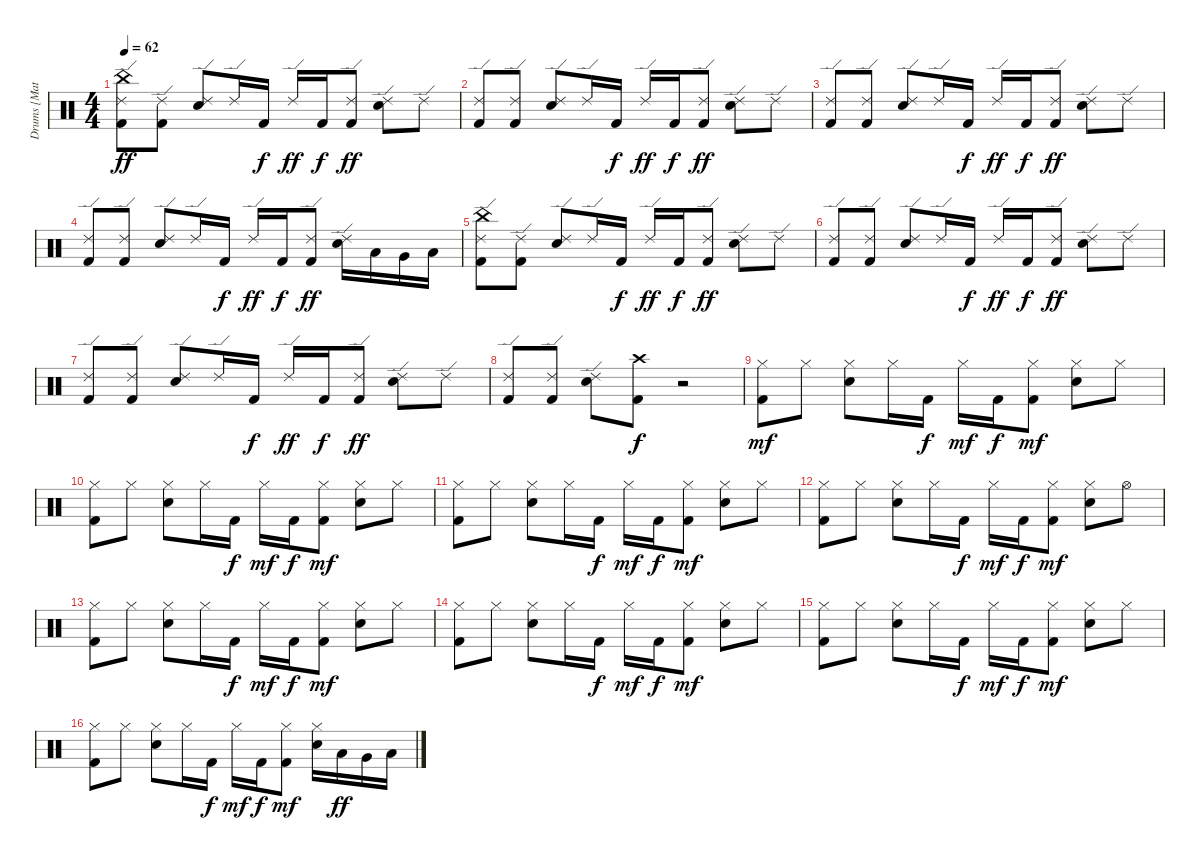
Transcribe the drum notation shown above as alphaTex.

\track ("Drums [Matt]" "Drums [Mat") {instrument percussion}
\staff {score}
\articulation defaults
\ts (4 4)
\tempo 62
\clef neutral
\ks c
("China (hit)" "Ride (edge) 2" "Kick (hit) 2").8{dy ff} ("Ride (edge) 2" "Kick (hit) 2").8 ("Ride (edge) 2" "Snare (hit) 2").8 "Ride (edge) 2".16 "Kick (hit) 2".16{dy f} "Ride (edge) 2".16{dy ff} "Kick (hit) 2".16{dy f} ("Ride (edge) 2" "Kick (hit) 2").8{dy ff} ("Ride (edge) 2" "Snare (hit) 2").8 "Ride (edge) 2".8 |
("Ride (edge) 2" "Kick (hit) 2").8 ("Ride (edge) 2" "Kick (hit) 2").8 ("Ride (edge) 2" "Snare (hit) 2").8 "Ride (edge) 2".16 "Kick (hit) 2".16{dy f} "Ride (edge) 2".16{dy ff} "Kick (hit) 2".16{dy f} ("Ride (edge) 2" "Kick (hit) 2").8{dy ff} ("Ride (edge) 2" "Snare (hit) 2").8 "Ride (edge) 2".8 |
("Ride (edge) 2" "Kick (hit) 2").8 ("Ride (edge) 2" "Kick (hit) 2").8 ("Ride (edge) 2" "Snare (hit) 2").8 "Ride (edge) 2".16 "Kick (hit) 2".16{dy f} "Ride (edge) 2".16{dy ff} "Kick (hit) 2".16{dy f} ("Ride (edge) 2" "Kick (hit) 2").8{dy ff} ("Ride (edge) 2" "Snare (hit) 2").8 "Ride (edge) 2".8 |
("Ride (edge) 2" "Kick (hit) 2").8 ("Ride (edge) 2" "Kick (hit) 2").8 ("Ride (edge) 2" "Snare (hit) 2").8 "Ride (edge) 2".16 "Kick (hit) 2".16{dy f} "Ride (edge) 2".16{dy ff} "Kick (hit) 2".16{dy f} ("Ride (edge) 2" "Kick (hit) 2").8{dy ff} ("Ride (edge) 2" "Snare (hit) 2").16 "Low Tom (hit)".16 "Very Low Tom (hit)".16 "Low Floor Tom (hit)".16 |
("China (hit)" "Ride (edge) 2" "Kick (hit) 2").8 ("Ride (edge) 2" "Kick (hit) 2").8 ("Ride (edge) 2" "Snare (hit) 2").8 "Ride (edge) 2".16 "Kick (hit) 2".16{dy f} "Ride (edge) 2".16{dy ff} "Kick (hit) 2".16{dy f} ("Ride (edge) 2" "Kick (hit) 2").8{dy ff} ("Ride (edge) 2" "Snare (hit) 2").8 "Ride (edge) 2".8 |
("Ride (edge) 2" "Kick (hit) 2").8 ("Ride (edge) 2" "Kick (hit) 2").8 ("Ride (edge) 2" "Snare (hit) 2").8 "Ride (edge) 2".16 "Kick (hit) 2".16{dy f} "Ride (edge) 2".16{dy ff} "Kick (hit) 2".16{dy f} ("Ride (edge) 2" "Kick (hit) 2").8{dy ff} ("Ride (edge) 2" "Snare (hit) 2").8 "Ride (edge) 2".8 |
("Ride (edge) 2" "Kick (hit) 2").8 ("Ride (edge) 2" "Kick (hit) 2").8 ("Ride (edge) 2" "Snare (hit) 2").8 "Ride (edge) 2".16 "Kick (hit) 2".16{dy f} "Ride (edge) 2".16{dy ff} "Kick (hit) 2".16{dy f} ("Ride (edge) 2" "Kick (hit) 2").8{dy ff} ("Ride (edge) 2" "Snare (hit) 2").8 "Ride (edge) 2".8 |
("Ride (edge) 2" "Kick (hit) 2").8 ("Ride (edge) 2" "Kick (hit) 2").8 ("Ride (edge) 2" "Snare (hit) 2").8 ("Crash high (hit)" "Kick (hit) 2").8{dy f} r.2 |
("Hi-Hat (closed)" "Kick (hit) 2").8{dy mf} "Hi-Hat (closed)".8 ("Hi-Hat (closed)" "Snare (hit) 2").8 "Hi-Hat (closed)".16 "Kick (hit) 2".16{dy f} "Hi-Hat (closed)".16{dy mf} "Kick (hit) 2".16{dy f} ("Hi-Hat (closed)" "Kick (hit) 2").8{dy mf} ("Hi-Hat (closed)" "Snare (hit) 2").8 "Hi-Hat (closed)".8 |
("Hi-Hat (closed)" "Kick (hit) 2").8 "Hi-Hat (closed)".8 ("Hi-Hat (closed)" "Snare (hit) 2").8 "Hi-Hat (closed)".16 "Kick (hit) 2".16{dy f} "Hi-Hat (closed)".16{dy mf} "Kick (hit) 2".16{dy f} ("Hi-Hat (closed)" "Kick (hit) 2").8{dy mf} ("Hi-Hat (closed)" "Snare (hit) 2").8 "Hi-Hat (closed)".8 |
("Hi-Hat (closed)" "Kick (hit) 2").8 "Hi-Hat (closed)".8 ("Hi-Hat (closed)" "Snare (hit) 2").8 "Hi-Hat (closed)".16 "Kick (hit) 2".16{dy f} "Hi-Hat (closed)".16{dy mf} "Kick (hit) 2".16{dy f} ("Hi-Hat (closed)" "Kick (hit) 2").8{dy mf} ("Hi-Hat (closed)" "Snare (hit) 2").8 "Hi-Hat (closed)".8 |
("Hi-Hat (closed)" "Kick (hit) 2").8 "Hi-Hat (closed)".8 ("Hi-Hat (closed)" "Snare (hit) 2").8 "Hi-Hat (closed)".16 "Kick (hit) 2".16{dy f} "Hi-Hat (closed)".16{dy mf} "Kick (hit) 2".16{dy f} ("Hi-Hat (closed)" "Kick (hit) 2").8{dy mf} ("Hi-Hat (closed)" "Snare (hit) 2").8 "Hi-Hat (open)".8 |
("Hi-Hat (closed)" "Kick (hit) 2").8 "Hi-Hat (closed)".8 ("Hi-Hat (closed)" "Snare (hit) 2").8 "Hi-Hat (closed)".16 "Kick (hit) 2".16{dy f} "Hi-Hat (closed)".16{dy mf} "Kick (hit) 2".16{dy f} ("Hi-Hat (closed)" "Kick (hit) 2").8{dy mf} ("Hi-Hat (closed)" "Snare (hit) 2").8 "Hi-Hat (closed)".8 |
("Hi-Hat (closed)" "Kick (hit) 2").8 "Hi-Hat (closed)".8 ("Hi-Hat (closed)" "Snare (hit) 2").8 "Hi-Hat (closed)".16 "Kick (hit) 2".16{dy f} "Hi-Hat (closed)".16{dy mf} "Kick (hit) 2".16{dy f} ("Hi-Hat (closed)" "Kick (hit) 2").8{dy mf} ("Hi-Hat (closed)" "Snare (hit) 2").8 "Hi-Hat (closed)".8 |
("Hi-Hat (closed)" "Kick (hit) 2").8 "Hi-Hat (closed)".8 ("Hi-Hat (closed)" "Snare (hit) 2").8 "Hi-Hat (closed)".16 "Kick (hit) 2".16{dy f} "Hi-Hat (closed)".16{dy mf} "Kick (hit) 2".16{dy f} ("Hi-Hat (closed)" "Kick (hit) 2").8{dy mf} ("Hi-Hat (closed)" "Snare (hit) 2").8 "Hi-Hat (closed)".8 |
("Hi-Hat (closed)" "Kick (hit) 2").8 "Hi-Hat (closed)".8 ("Hi-Hat (closed)" "Snare (hit) 2").8 "Hi-Hat (closed)".16 "Kick (hit) 2".16{dy f} "Hi-Hat (closed)".16{dy mf} "Kick (hit) 2".16{dy f} ("Hi-Hat (closed)" "Kick (hit) 2").8{dy mf} ("Hi-Hat (closed)" "Snare (hit) 2").16 "Low Tom (hit)".16{dy ff} "Very Low Tom (hit)".16 "Low Floor Tom (hit)".16
